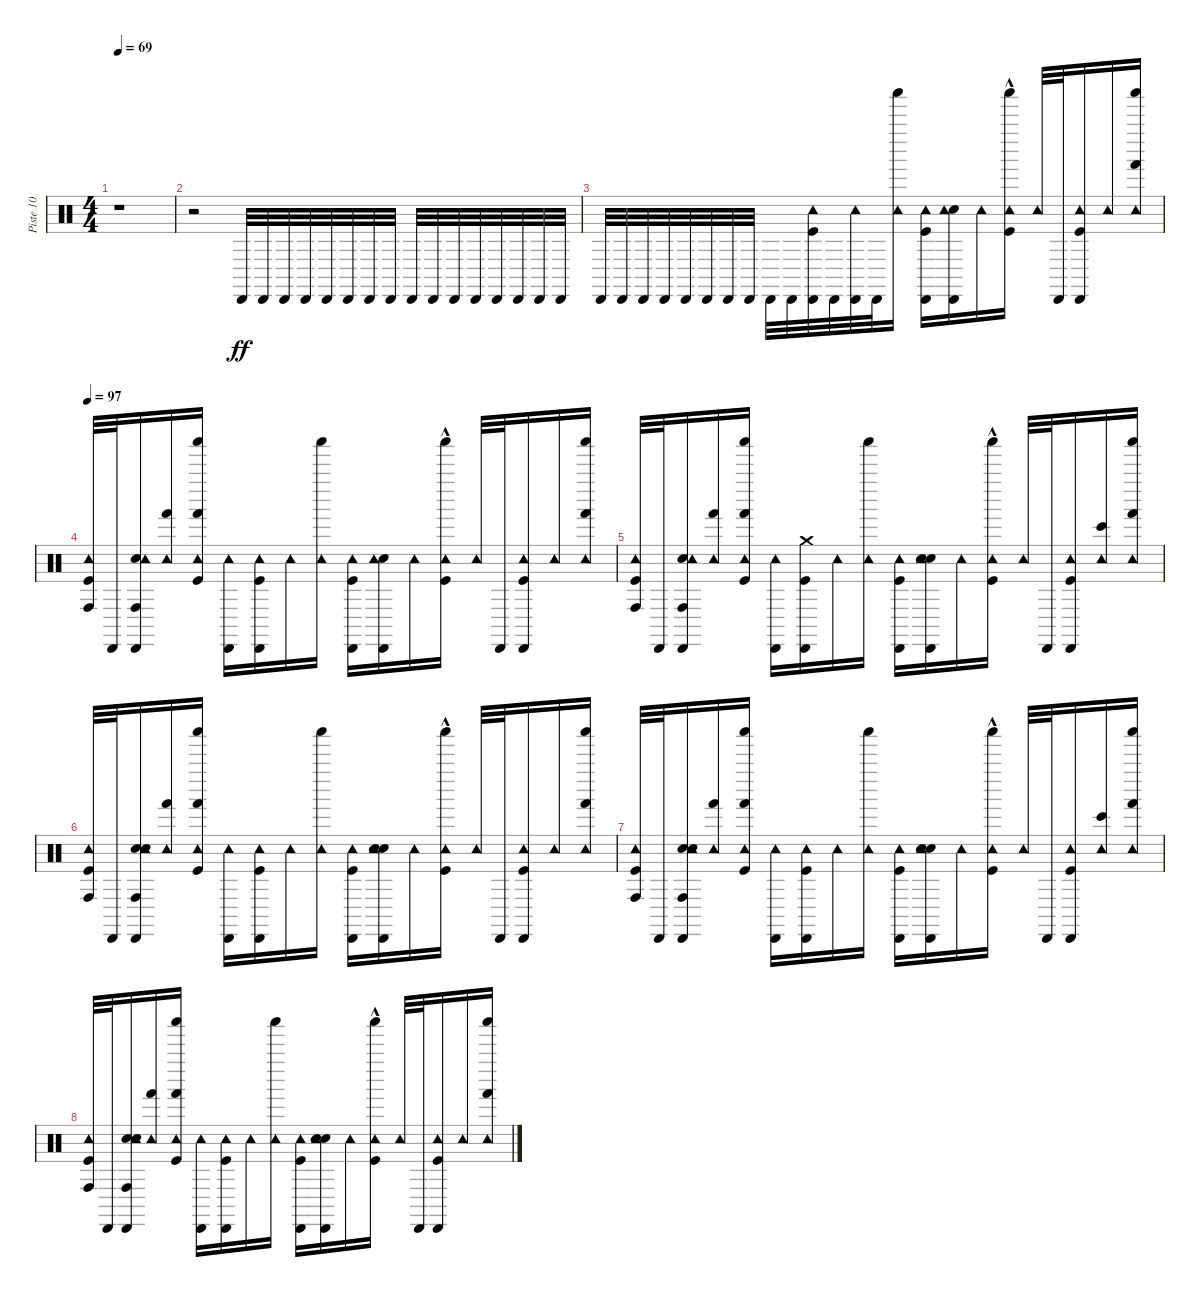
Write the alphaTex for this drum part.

\track ("Piste 10" "Piste 10") {instrument percussion}
\staff {score}
\articulation defaults
\ts (4 4)
\tempo 69
\clef neutral
\ks c
r.1{dy ff} |
r.2 "Cabasa (hit)".32 "Cabasa (hit)".32 "Cabasa (hit)".32 "Cabasa (hit)".32 "Cabasa (hit)".32 "Cabasa (hit)".32 "Cabasa (hit)".32 "Cabasa (hit)".32 "Cabasa (hit)".32 "Cabasa (hit)".32 "Cabasa (hit)".32 "Cabasa (hit)".32 "Cabasa (hit)".32 "Cabasa (hit)".32 "Cabasa (hit)".32 "Cabasa (hit)".32 |
"Cabasa (hit)".32 "Cabasa (hit)".32 "Cabasa (hit)".32 "Cabasa (hit)".32 "Cabasa (hit)".32 "Cabasa (hit)".32 "Cabasa (hit)".32 "Cabasa (hit)".32 "Cabasa (hit)".32 "Cabasa (hit)".32 ("Cabasa (hit)" "Kick (hit)" "Tambourine (hit)").32 "Cabasa (hit)".32 ("Cabasa (hit)" "Tambourine (hit)").32 "Cabasa (hit)".32 ("Shaker (hit)" "Tambourine (hit)").16 ("Cabasa (hit)" "Kick (hit)" "Tambourine (hit)").16 ("Cabasa (hit)" "Electric Snare (hit)" "Tambourine (hit)").16 "Tambourine (hit)".16 ("Shaker (hit)"{hac} "Kick (hit)" "Tambourine (hit)").16 "Tambourine (hit)".32 "Cabasa (hit)".32 ("Cabasa (hit)" "Kick (hit)" "Tambourine (hit)").16 "Tambourine (hit)".16 ("Hand (hit)" "Shaker (hit)" "Tambourine (hit)").16 |
\tempo 97
("Conga high (hit)" "Kick (hit)" "Tambourine (hit)").32 "Cabasa (hit)".32 ("Conga high (hit)" "Cabasa (hit)" "Electric Snare (hit)" "Tambourine (hit)").16 ("Hand (hit)" "Tambourine (hit)").16 ("Hand (hit)" "Shaker (hit)" "Kick (hit)" "Tambourine (hit)").16 ("Cabasa (hit)" "Tambourine (hit)").16 ("Cabasa (hit)" "Kick (hit)" "Tambourine (hit)").16 "Tambourine (hit)".16 ("Shaker (hit)" "Tambourine (hit)").16 ("Cabasa (hit)" "Kick (hit)" "Tambourine (hit)").16 ("Cabasa (hit)" "Electric Snare (hit)" "Tambourine (hit)").16 "Tambourine (hit)".16 ("Shaker (hit)"{hac} "Kick (hit)" "Tambourine (hit)").16 "Tambourine (hit)".32 "Cabasa (hit)".32 ("Cabasa (hit)" "Kick (hit)" "Tambourine (hit)").16 "Tambourine (hit)".16 ("Hand (hit)" "Shaker (hit)" "Tambourine (hit)").16 |
("Conga high (hit)" "Kick (hit)" "Tambourine (hit)").32 "Cabasa (hit)".32 ("Conga high (hit)" "Cabasa (hit)" "Electric Snare (hit)" "Tambourine (hit)").16 ("Hand (hit)" "Tambourine (hit)").16 ("Hand (hit)" "Shaker (hit)" "Kick (hit)" "Tambourine (hit)").16 ("Cabasa (hit)" "Tambourine (hit)").16 ("Cabasa (hit)" "Kick (hit)" "Crash medium (hit)").16 "Tambourine (hit)".16 ("Shaker (hit)" "Tambourine (hit)").16 ("Cabasa (hit)" "Kick (hit)" "Tambourine (hit)").16 ("Cabasa (hit)" "Hand Clap (hit)" "Electric Snare (hit)" "Tambourine (hit)").16 "Tambourine (hit)".16 ("Shaker (hit)"{hac} "Kick (hit)" "Tambourine (hit)").16 "Tambourine (hit)".32 "Cabasa (hit)".32 ("Cabasa (hit)" "Kick (hit)" "Tambourine (hit)").16 ("Bongo High (hit)" "Tambourine (hit)").16 ("Hand (hit)" "Shaker (hit)" "Tambourine (hit)").16 |
("Conga high (hit)" "Kick (hit)" "Tambourine (hit)").32 "Cabasa (hit)".32 ("Conga high (hit)" "Cabasa (hit)" "Hand Clap (hit)" "Electric Snare (hit)" "Tambourine (hit)").16 ("Hand (hit)" "Tambourine (hit)").16 ("Hand (hit)" "Shaker (hit)" "Kick (hit)" "Tambourine (hit)").16 ("Cabasa (hit)" "Tambourine (hit)").16 ("Cabasa (hit)" "Kick (hit)" "Tambourine (hit)").16 "Tambourine (hit)".16 ("Shaker (hit)" "Tambourine (hit)").16 ("Cabasa (hit)" "Kick (hit)" "Tambourine (hit)").16 ("Cabasa (hit)" "Hand Clap (hit)" "Electric Snare (hit)" "Tambourine (hit)").16 "Tambourine (hit)".16 ("Shaker (hit)"{hac} "Kick (hit)" "Tambourine (hit)").16 "Tambourine (hit)".32 "Cabasa (hit)".32 ("Cabasa (hit)" "Kick (hit)" "Tambourine (hit)").16 "Tambourine (hit)".16 ("Hand (hit)" "Shaker (hit)" "Tambourine (hit)").16 |
("Conga high (hit)" "Kick (hit)" "Tambourine (hit)").32 "Cabasa (hit)".32 ("Conga high (hit)" "Cabasa (hit)" "Hand Clap (hit)" "Electric Snare (hit)" "Tambourine (hit)").16 ("Hand (hit)" "Tambourine (hit)").16 ("Hand (hit)" "Shaker (hit)" "Kick (hit)" "Tambourine (hit)").16 ("Cabasa (hit)" "Tambourine (hit)").16 ("Cabasa (hit)" "Kick (hit)" "Tambourine (hit)").16 "Tambourine (hit)".16 ("Shaker (hit)" "Tambourine (hit)").16 ("Cabasa (hit)" "Kick (hit)" "Tambourine (hit)").16 ("Cabasa (hit)" "Hand Clap (hit)" "Electric Snare (hit)" "Tambourine (hit)").16 "Tambourine (hit)".16 ("Shaker (hit)"{hac} "Kick (hit)" "Tambourine (hit)").16 "Tambourine (hit)".32 "Cabasa (hit)".32 ("Cabasa (hit)" "Kick (hit)" "Tambourine (hit)").16 ("Bongo High (hit)" "Tambourine (hit)").16 ("Hand (hit)" "Shaker (hit)" "Tambourine (hit)").16 |
("Conga high (hit)" "Kick (hit)" "Tambourine (hit)").32 "Cabasa (hit)".32 ("Conga high (hit)" "Cabasa (hit)" "Hand Clap (hit)" "Electric Snare (hit)" "Tambourine (hit)").16 ("Hand (hit)" "Tambourine (hit)").16 ("Hand (hit)" "Shaker (hit)" "Kick (hit)" "Tambourine (hit)").16 ("Cabasa (hit)" "Tambourine (hit)").16 ("Cabasa (hit)" "Kick (hit)" "Tambourine (hit)").16 "Tambourine (hit)".16 ("Shaker (hit)" "Tambourine (hit)").16 ("Cabasa (hit)" "Kick (hit)" "Tambourine (hit)").16 ("Cabasa (hit)" "Hand Clap (hit)" "Electric Snare (hit)" "Tambourine (hit)").16 "Tambourine (hit)".16 ("Shaker (hit)"{hac} "Kick (hit)" "Tambourine (hit)").16 "Tambourine (hit)".32 "Cabasa (hit)".32 ("Cabasa (hit)" "Kick (hit)" "Tambourine (hit)").16 "Tambourine (hit)".16 ("Hand (hit)" "Shaker (hit)" "Tambourine (hit)").16
